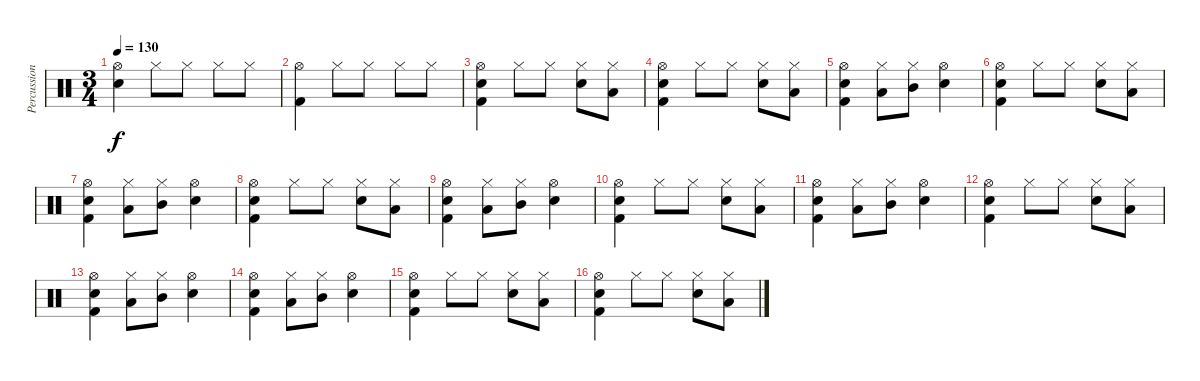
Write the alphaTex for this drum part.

\track ("Percussion" "Percussion") {instrument percussion}
\staff {score}
\articulation defaults
\ts (3 4)
\tempo 130
\clef neutral
\ks c
("Hi-Hat (open)" "Snare (hit) 2").4{dy f} "Hi-Hat (closed)".8 "Hi-Hat (closed)".8 "Hi-Hat (closed)".8 "Hi-Hat (closed)".8 |
("Hi-Hat (open)" "Kick (hit) 2").4 "Hi-Hat (closed)".8 "Hi-Hat (closed)".8 "Hi-Hat (closed)".8 "Hi-Hat (closed)".8 |
("Snare (hit) 2" "Hi-Hat (open)" "Kick (hit) 2").4 "Hi-Hat (closed)".8 "Hi-Hat (closed)".8 ("Snare (hit) 2" "Hi-Hat (closed)").8 ("Low Tom (hit)" "Hi-Hat (closed)").8 |
("Snare (hit) 2" "Hi-Hat (open)" "Kick (hit) 2").4 "Hi-Hat (closed)".8 "Hi-Hat (closed)".8 ("Snare (hit) 2" "Hi-Hat (closed)").8 ("Low Tom (hit)" "Hi-Hat (closed)").8 |
("Snare (hit) 2" "Hi-Hat (open)" "Kick (hit) 2").4 ("Low Tom (hit)" "Hi-Hat (closed)").8 ("Mid Tom (hit)" "Hi-Hat (closed)").8 ("Snare (hit) 2" "Hi-Hat (open)").4 |
("Snare (hit) 2" "Hi-Hat (open)" "Kick (hit) 2").4 "Hi-Hat (closed)".8 "Hi-Hat (closed)".8 ("Snare (hit) 2" "Hi-Hat (closed)").8 ("Low Tom (hit)" "Hi-Hat (closed)").8 |
("Snare (hit) 2" "Hi-Hat (open)" "Kick (hit) 2").4 ("Low Tom (hit)" "Hi-Hat (closed)").8 ("Mid Tom (hit)" "Hi-Hat (closed)").8 ("Snare (hit) 2" "Hi-Hat (open)").4 |
("Snare (hit) 2" "Hi-Hat (open)" "Kick (hit) 2").4 "Hi-Hat (closed)".8 "Hi-Hat (closed)".8 ("Snare (hit) 2" "Hi-Hat (closed)").8 ("Low Tom (hit)" "Hi-Hat (closed)").8 |
("Snare (hit) 2" "Hi-Hat (open)" "Kick (hit) 2").4 ("Low Tom (hit)" "Hi-Hat (closed)").8 ("Mid Tom (hit)" "Hi-Hat (closed)").8 ("Snare (hit) 2" "Hi-Hat (open)").4 |
("Snare (hit) 2" "Hi-Hat (open)" "Kick (hit) 2").4 "Hi-Hat (closed)".8 "Hi-Hat (closed)".8 ("Snare (hit) 2" "Hi-Hat (closed)").8 ("Low Tom (hit)" "Hi-Hat (closed)").8 |
("Snare (hit) 2" "Hi-Hat (open)" "Kick (hit) 2").4 ("Low Tom (hit)" "Hi-Hat (closed)").8 ("Mid Tom (hit)" "Hi-Hat (closed)").8 ("Snare (hit) 2" "Hi-Hat (open)").4 |
("Snare (hit) 2" "Hi-Hat (open)" "Kick (hit) 2").4 "Hi-Hat (closed)".8 "Hi-Hat (closed)".8 ("Snare (hit) 2" "Hi-Hat (closed)").8 ("Low Tom (hit)" "Hi-Hat (closed)").8 |
("Snare (hit) 2" "Hi-Hat (open)" "Kick (hit) 2").4 ("Low Tom (hit)" "Hi-Hat (closed)").8 ("Mid Tom (hit)" "Hi-Hat (closed)").8 ("Snare (hit) 2" "Hi-Hat (open)").4 |
("Snare (hit) 2" "Hi-Hat (open)" "Kick (hit) 2").4 ("Low Tom (hit)" "Hi-Hat (closed)").8 ("Mid Tom (hit)" "Hi-Hat (closed)").8 ("Snare (hit) 2" "Hi-Hat (open)").4 |
("Snare (hit) 2" "Hi-Hat (open)" "Kick (hit) 2").4 "Hi-Hat (closed)".8 "Hi-Hat (closed)".8 ("Snare (hit) 2" "Hi-Hat (closed)").8 ("Low Tom (hit)" "Hi-Hat (closed)").8 |
("Snare (hit) 2" "Hi-Hat (open)" "Kick (hit) 2").4 "Hi-Hat (closed)".8 "Hi-Hat (closed)".8 ("Snare (hit) 2" "Hi-Hat (closed)").8 ("Low Tom (hit)" "Hi-Hat (closed)").8
